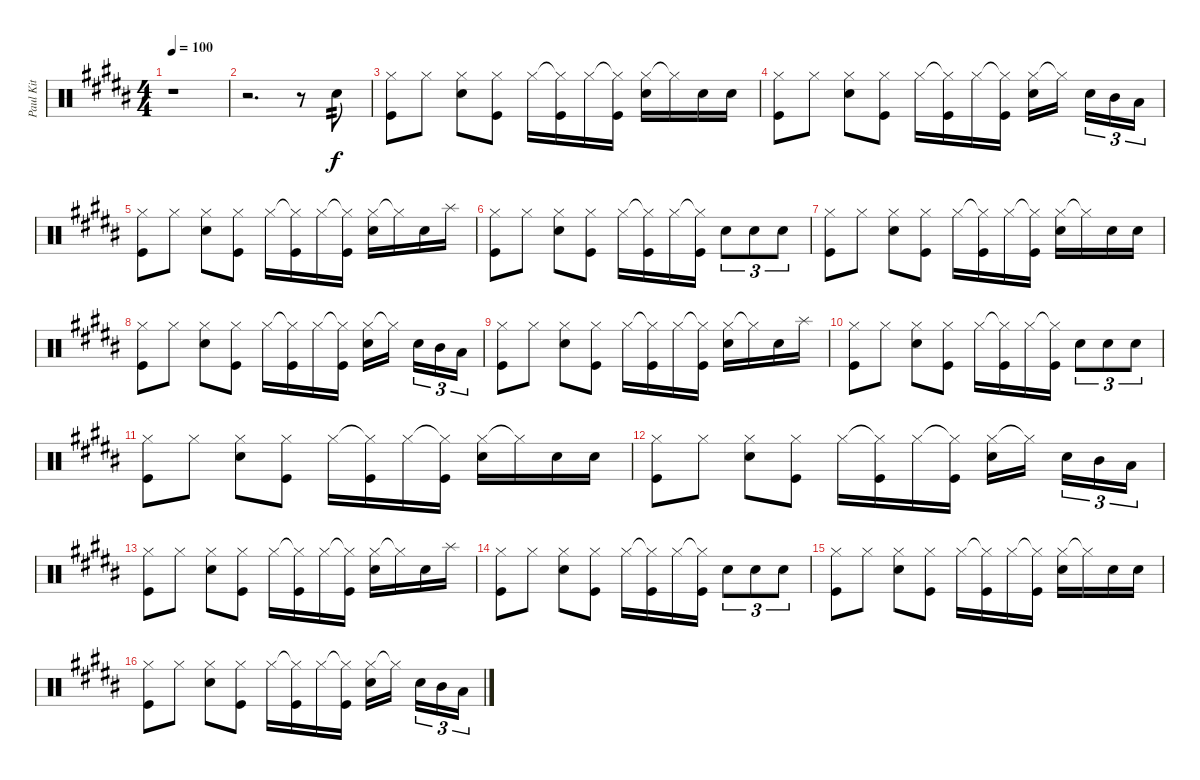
\track ("Paul Kit" "Paul Kit") {instrument percussion}
\staff {score}
\articulation defaults
\ts (4 4)
\tempo 100
\clef neutral
\ks b
r.1{dy f} |
r.2{d} r.8 "Snare (hit) 2".8{tp 2} |
("Hi-Hat (closed)" "Kick (hit)").8 "Hi-Hat (closed)".8 ("Hi-Hat (closed)" "Snare (hit) 2").8 ("Hi-Hat (closed)" "Kick (hit)").8 "Hi-Hat (closed)".16 ("Hi-Hat (closed)"{t} "Kick (hit)").16 "Hi-Hat (closed)".16 ("Hi-Hat (closed)"{t} "Kick (hit)").16 ("Hi-Hat (closed)" "Snare (hit) 2").16 "Hi-Hat (closed)"{t}.16 "Snare (hit) 2".16 "Snare (hit) 2".16 |
("Hi-Hat (closed)" "Kick (hit)").8 "Hi-Hat (closed)".8 ("Hi-Hat (closed)" "Snare (hit) 2").8 ("Hi-Hat (closed)" "Kick (hit)").8 "Hi-Hat (closed)".16 ("Hi-Hat (closed)"{t} "Kick (hit)").16 "Hi-Hat (closed)".16 ("Hi-Hat (closed)"{t} "Kick (hit)").16 ("Hi-Hat (closed)" "Snare (hit) 2").16 "Hi-Hat (closed)"{t}.16 "Snare (hit) 2".16{tu (3 2)} "Mid Tom (hit)".16{tu (3 2)} "Low Tom (hit)".16{tu (3 2)} |
("Hi-Hat (closed)" "Kick (hit)").8 "Hi-Hat (closed)".8 ("Hi-Hat (closed)" "Snare (hit) 2").8 ("Hi-Hat (closed)" "Kick (hit)").8 "Hi-Hat (closed)".16 ("Hi-Hat (closed)"{t} "Kick (hit)").16 "Hi-Hat (closed)".16 ("Hi-Hat (closed)"{t} "Kick (hit)").16 ("Hi-Hat (closed)" "Snare (hit) 2").16 "Hi-Hat (closed)"{t}.16 "Snare (hit) 2".16 "Splash (hit)".16 |
("Hi-Hat (closed)" "Kick (hit)").8 "Hi-Hat (closed)".8 ("Hi-Hat (closed)" "Snare (hit) 2").8 ("Hi-Hat (closed)" "Kick (hit)").8 "Hi-Hat (closed)".16 ("Hi-Hat (closed)"{t} "Kick (hit)").16 "Hi-Hat (closed)".16 ("Hi-Hat (closed)"{t} "Kick (hit)").16 "Snare (hit) 2".8{tu (3 2)} "Snare (hit) 2".8{tu (3 2)} "Snare (hit) 2".8{tu (3 2)} |
("Hi-Hat (closed)" "Kick (hit)").8 "Hi-Hat (closed)".8 ("Hi-Hat (closed)" "Snare (hit) 2").8 ("Hi-Hat (closed)" "Kick (hit)").8 "Hi-Hat (closed)".16 ("Hi-Hat (closed)"{t} "Kick (hit)").16 "Hi-Hat (closed)".16 ("Hi-Hat (closed)"{t} "Kick (hit)").16 ("Hi-Hat (closed)" "Snare (hit) 2").16 "Hi-Hat (closed)"{t}.16 "Snare (hit) 2".16 "Snare (hit) 2".16 |
("Hi-Hat (closed)" "Kick (hit)").8 "Hi-Hat (closed)".8 ("Hi-Hat (closed)" "Snare (hit) 2").8 ("Hi-Hat (closed)" "Kick (hit)").8 "Hi-Hat (closed)".16 ("Hi-Hat (closed)"{t} "Kick (hit)").16 "Hi-Hat (closed)".16 ("Hi-Hat (closed)"{t} "Kick (hit)").16 ("Hi-Hat (closed)" "Snare (hit) 2").16 "Hi-Hat (closed)"{t}.16 "Snare (hit) 2".16{tu (3 2)} "Mid Tom (hit)".16{tu (3 2)} "Low Tom (hit)".16{tu (3 2)} |
("Hi-Hat (closed)" "Kick (hit)").8 "Hi-Hat (closed)".8 ("Hi-Hat (closed)" "Snare (hit) 2").8 ("Hi-Hat (closed)" "Kick (hit)").8 "Hi-Hat (closed)".16 ("Hi-Hat (closed)"{t} "Kick (hit)").16 "Hi-Hat (closed)".16 ("Hi-Hat (closed)"{t} "Kick (hit)").16 ("Hi-Hat (closed)" "Snare (hit) 2").16 "Hi-Hat (closed)"{t}.16 "Snare (hit) 2".16 "Splash (hit)".16 |
("Hi-Hat (closed)" "Kick (hit)").8 "Hi-Hat (closed)".8 ("Hi-Hat (closed)" "Snare (hit) 2").8 ("Hi-Hat (closed)" "Kick (hit)").8 "Hi-Hat (closed)".16 ("Hi-Hat (closed)"{t} "Kick (hit)").16 "Hi-Hat (closed)".16 ("Hi-Hat (closed)"{t} "Kick (hit)").16 "Snare (hit) 2".8{tu (3 2)} "Snare (hit) 2".8{tu (3 2)} "Snare (hit) 2".8{tu (3 2)} |
("Hi-Hat (closed)" "Kick (hit)").8 "Hi-Hat (closed)".8 ("Hi-Hat (closed)" "Snare (hit) 2").8 ("Hi-Hat (closed)" "Kick (hit)").8 "Hi-Hat (closed)".16 ("Hi-Hat (closed)"{t} "Kick (hit)").16 "Hi-Hat (closed)".16 ("Hi-Hat (closed)"{t} "Kick (hit)").16 ("Hi-Hat (closed)" "Snare (hit) 2").16 "Hi-Hat (closed)"{t}.16 "Snare (hit) 2".16 "Snare (hit) 2".16 |
("Hi-Hat (closed)" "Kick (hit)").8 "Hi-Hat (closed)".8 ("Hi-Hat (closed)" "Snare (hit) 2").8 ("Hi-Hat (closed)" "Kick (hit)").8 "Hi-Hat (closed)".16 ("Hi-Hat (closed)"{t} "Kick (hit)").16 "Hi-Hat (closed)".16 ("Hi-Hat (closed)"{t} "Kick (hit)").16 ("Hi-Hat (closed)" "Snare (hit) 2").16 "Hi-Hat (closed)"{t}.16 "Snare (hit) 2".16{tu (3 2)} "Mid Tom (hit)".16{tu (3 2)} "Low Tom (hit)".16{tu (3 2)} |
("Hi-Hat (closed)" "Kick (hit)").8 "Hi-Hat (closed)".8 ("Hi-Hat (closed)" "Snare (hit) 2").8 ("Hi-Hat (closed)" "Kick (hit)").8 "Hi-Hat (closed)".16 ("Hi-Hat (closed)"{t} "Kick (hit)").16 "Hi-Hat (closed)".16 ("Hi-Hat (closed)"{t} "Kick (hit)").16 ("Hi-Hat (closed)" "Snare (hit) 2").16 "Hi-Hat (closed)"{t}.16 "Snare (hit) 2".16 "Splash (hit)".16 |
("Hi-Hat (closed)" "Kick (hit)").8 "Hi-Hat (closed)".8 ("Hi-Hat (closed)" "Snare (hit) 2").8 ("Hi-Hat (closed)" "Kick (hit)").8 "Hi-Hat (closed)".16 ("Hi-Hat (closed)"{t} "Kick (hit)").16 "Hi-Hat (closed)".16 ("Hi-Hat (closed)"{t} "Kick (hit)").16 "Snare (hit) 2".8{tu (3 2)} "Snare (hit) 2".8{tu (3 2)} "Snare (hit) 2".8{tu (3 2)} |
("Hi-Hat (closed)" "Kick (hit)").8 "Hi-Hat (closed)".8 ("Hi-Hat (closed)" "Snare (hit) 2").8 ("Hi-Hat (closed)" "Kick (hit)").8 "Hi-Hat (closed)".16 ("Hi-Hat (closed)"{t} "Kick (hit)").16 "Hi-Hat (closed)".16 ("Hi-Hat (closed)"{t} "Kick (hit)").16 ("Hi-Hat (closed)" "Snare (hit) 2").16 "Hi-Hat (closed)"{t}.16 "Snare (hit) 2".16 "Snare (hit) 2".16 |
("Hi-Hat (closed)" "Kick (hit)").8 "Hi-Hat (closed)".8 ("Hi-Hat (closed)" "Snare (hit) 2").8 ("Hi-Hat (closed)" "Kick (hit)").8 "Hi-Hat (closed)".16 ("Hi-Hat (closed)"{t} "Kick (hit)").16 "Hi-Hat (closed)".16 ("Hi-Hat (closed)"{t} "Kick (hit)").16 ("Hi-Hat (closed)" "Snare (hit) 2").16 "Hi-Hat (closed)"{t}.16 "Snare (hit) 2".16{tu (3 2)} "Mid Tom (hit)".16{tu (3 2)} "Low Tom (hit)".16{tu (3 2)}
